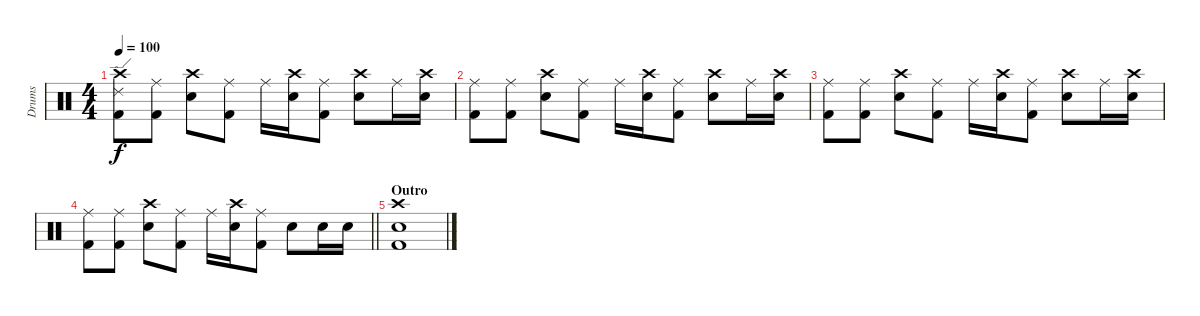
\track ("Drums" "Drums") {instrument percussion}
\staff {score}
\articulation defaults
\ts (4 4)
\tempo 100
\clef neutral
\ks c
("Crash high (hit)" "Ride (edge) 2" "Kick (hit) 2").8{dy f} ("Ride (middle)" "Kick (hit) 2").8 ("Electric Snare (hit)" "Crash high (hit)").8 ("Ride (middle)" "Kick (hit) 2").8 "Ride (middle)".16 ("Electric Snare (hit)" "Crash high (hit)").16 ("Ride (middle)" "Kick (hit) 2").8 ("Electric Snare (hit)" "Crash high (hit)").8 "Ride (middle)".16 ("Electric Snare (hit)" "Crash high (hit)").16 |
("Ride (middle)" "Kick (hit) 2").8 ("Ride (middle)" "Kick (hit) 2").8 ("Electric Snare (hit)" "Crash high (hit)").8 ("Ride (middle)" "Kick (hit) 2").8 "Ride (middle)".16 ("Electric Snare (hit)" "Crash high (hit)").16 ("Ride (middle)" "Kick (hit) 2").8 ("Electric Snare (hit)" "Crash high (hit)").8 "Ride (middle)".16 ("Electric Snare (hit)" "Crash high (hit)").16 |
("Ride (middle)" "Kick (hit) 2").8 ("Ride (middle)" "Kick (hit) 2").8 ("Electric Snare (hit)" "Crash high (hit)").8 ("Ride (middle)" "Kick (hit) 2").8 "Ride (middle)".16 ("Electric Snare (hit)" "Crash high (hit)").16 ("Ride (middle)" "Kick (hit) 2").8 ("Electric Snare (hit)" "Crash high (hit)").8 "Ride (middle)".16 ("Electric Snare (hit)" "Crash high (hit)").16 |
\barLineRight lightlight
("Ride (middle)" "Kick (hit) 2").8 ("Ride (middle)" "Kick (hit) 2").8 ("Electric Snare (hit)" "Crash high (hit)").8 ("Ride (middle)" "Kick (hit) 2").8 "Ride (middle)".16 ("Electric Snare (hit)" "Crash high (hit)").16 ("Ride (middle)" "Kick (hit) 2").8 "Electric Snare (hit)".8 "Electric Snare (hit)".16 "Electric Snare (hit)".16 |
\section ("" "Outro")
("Electric Snare (hit)" "Crash high (hit)" "Kick (hit) 2").1
